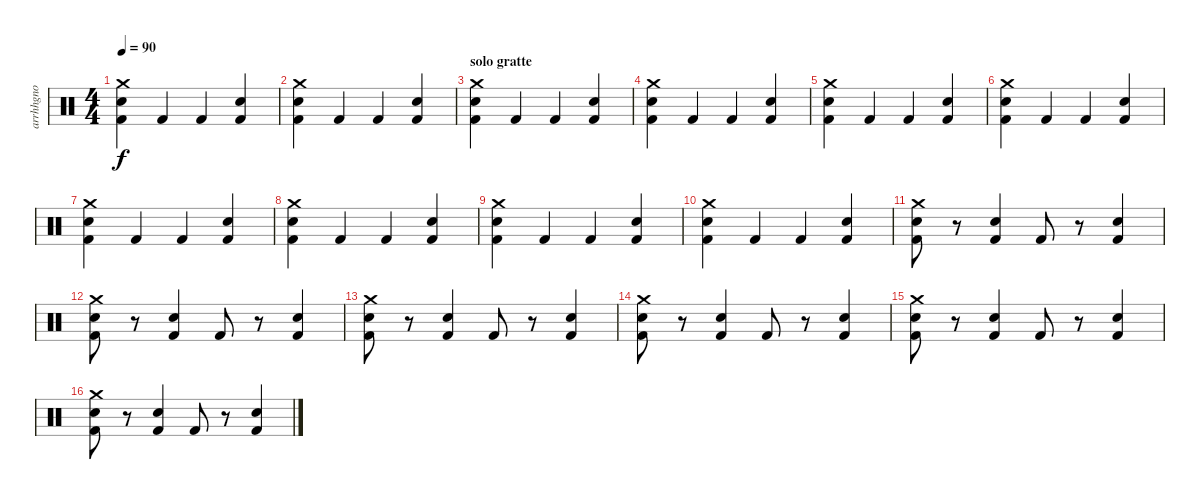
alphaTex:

\track ("arrhhgno" "arrhhgno") {instrument percussion}
\staff {score}
\articulation defaults
\ts (4 4)
\tempo 90
\clef neutral
\ks c
("Crash medium (hit)" "Electric Snare (hit)" "Kick (hit) 2").4{dy f} "Kick (hit) 2".4 "Kick (hit) 2".4 ("Kick (hit) 2" "Electric Snare (hit)").4 |
("Crash medium (hit)" "Electric Snare (hit)" "Kick (hit) 2").4 "Kick (hit) 2".4 "Kick (hit) 2".4 ("Kick (hit) 2" "Electric Snare (hit)").4 |
\section ("" "solo gratte")
("Crash medium (hit)" "Electric Snare (hit)" "Kick (hit) 2").4 "Kick (hit) 2".4 "Kick (hit) 2".4 ("Kick (hit) 2" "Electric Snare (hit)").4 |
("Crash medium (hit)" "Kick (hit) 2" "Electric Snare (hit)").4 "Kick (hit) 2".4 "Kick (hit) 2".4 ("Kick (hit) 2" "Electric Snare (hit)").4 |
("Crash medium (hit)" "Electric Snare (hit)" "Kick (hit) 2").4 "Kick (hit) 2".4 "Kick (hit) 2".4 ("Kick (hit) 2" "Electric Snare (hit)").4 |
("Crash medium (hit)" "Electric Snare (hit)" "Kick (hit) 2").4 "Kick (hit) 2".4 "Kick (hit) 2".4 ("Kick (hit) 2" "Electric Snare (hit)").4 |
("Crash medium (hit)" "Kick (hit) 2" "Electric Snare (hit)").4 "Kick (hit) 2".4 "Kick (hit) 2".4 ("Kick (hit) 2" "Electric Snare (hit)").4 |
("Crash medium (hit)" "Electric Snare (hit)" "Kick (hit) 2").4 "Kick (hit) 2".4 "Kick (hit) 2".4 ("Kick (hit) 2" "Electric Snare (hit)").4 |
("Crash medium (hit)" "Kick (hit) 2" "Electric Snare (hit)").4 "Kick (hit) 2".4 "Kick (hit) 2".4 ("Kick (hit) 2" "Electric Snare (hit)").4 |
("Crash medium (hit)" "Electric Snare (hit)" "Kick (hit) 2").4 "Kick (hit) 2".4 "Kick (hit) 2".4 ("Kick (hit) 2" "Electric Snare (hit)").4 |
("Kick (hit) 2" "Crash medium (hit)" "Electric Snare (hit)").8 r.8 ("Kick (hit) 2" "Electric Snare (hit)").4 "Kick (hit) 2".8 r.8 ("Kick (hit) 2" "Electric Snare (hit)").4 |
("Crash medium (hit)" "Electric Snare (hit)" "Kick (hit) 2").8 r.8 ("Kick (hit) 2" "Electric Snare (hit)").4 "Kick (hit) 2".8 r.8 ("Kick (hit) 2" "Electric Snare (hit)").4 |
("Crash medium (hit)" "Electric Snare (hit)" "Kick (hit) 2").8 r.8 ("Kick (hit) 2" "Electric Snare (hit)").4 "Kick (hit) 2".8 r.8 ("Kick (hit) 2" "Electric Snare (hit)").4 |
("Crash medium (hit)" "Electric Snare (hit)" "Kick (hit) 2").8 r.8 ("Kick (hit) 2" "Electric Snare (hit)").4 "Kick (hit) 2".8 r.8 ("Kick (hit) 2" "Electric Snare (hit)").4 |
("Crash medium (hit)" "Electric Snare (hit)" "Kick (hit) 2").8 r.8 ("Kick (hit) 2" "Electric Snare (hit)").4 "Kick (hit) 2".8 r.8 ("Kick (hit) 2" "Electric Snare (hit)").4 |
("Crash medium (hit)" "Electric Snare (hit)" "Kick (hit) 2").8 r.8 ("Kick (hit) 2" "Electric Snare (hit)").4 "Kick (hit) 2".8 r.8 ("Kick (hit) 2" "Electric Snare (hit)").4
